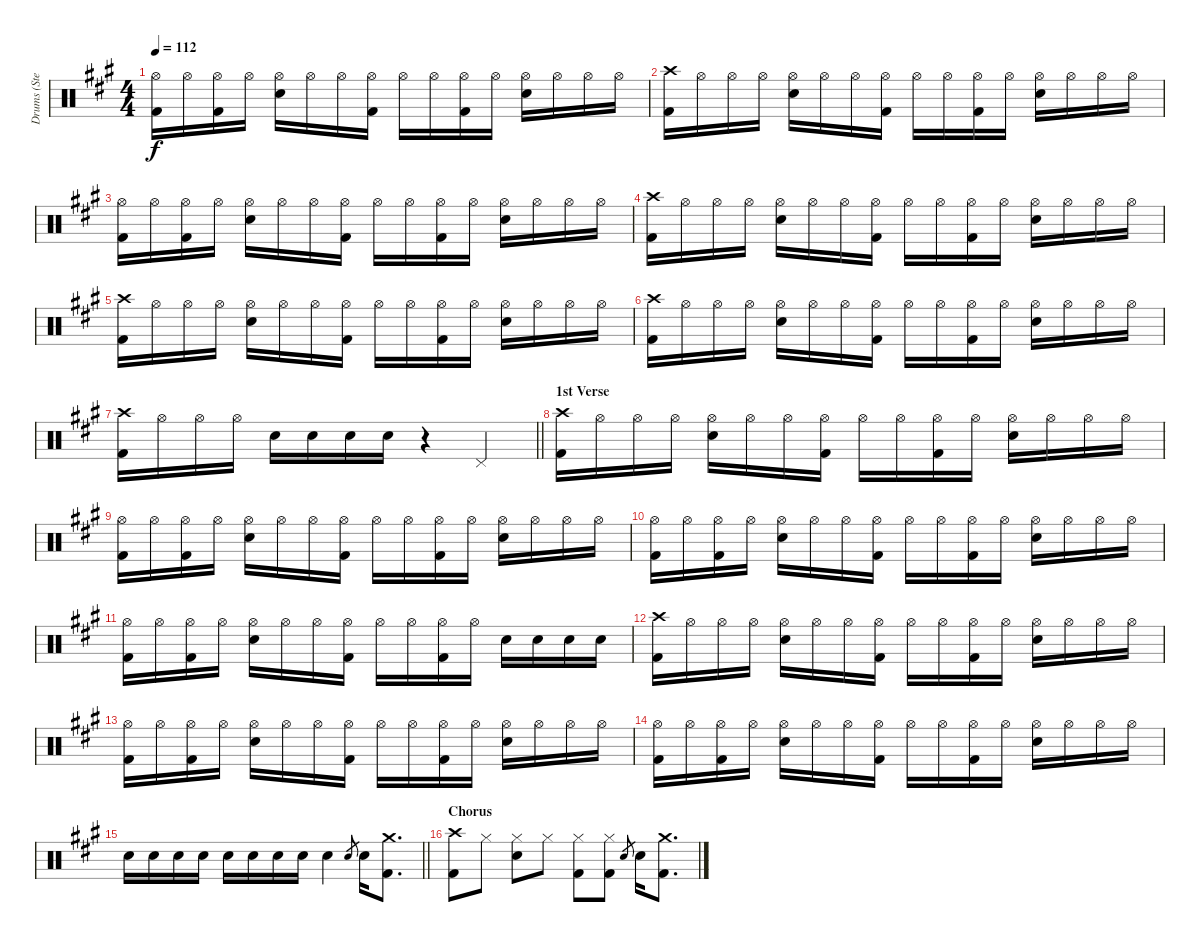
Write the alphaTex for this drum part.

\track ("Drums (Steven)" "Drums (Ste") {instrument percussion}
\staff {score}
\articulation defaults
\ts (4 4)
\tempo 112
\clef neutral
\ks f#minor
("Hi-Hat (open)" "Kick (hit) 2").16{dy f} "Hi-Hat (open)".16 ("Hi-Hat (open)" "Kick (hit) 2").16 "Hi-Hat (open)".16 ("Hi-Hat (open)" "Snare (hit) 2").16 "Hi-Hat (open)".16 "Hi-Hat (open)".16 ("Hi-Hat (open)" "Kick (hit) 2").16 "Hi-Hat (open)".16 "Hi-Hat (open)".16 ("Hi-Hat (open)" "Kick (hit) 2").16 "Hi-Hat (open)".16 ("Hi-Hat (open)" "Snare (hit) 2").16 "Hi-Hat (open)".16 "Hi-Hat (open)".16 "Hi-Hat (open)".16 |
("Crash high (hit)" "Kick (hit) 2").16 "Hi-Hat (open)".16 "Hi-Hat (open)".16 "Hi-Hat (open)".16 ("Hi-Hat (open)" "Snare (hit) 2").16 "Hi-Hat (open)".16 "Hi-Hat (open)".16 ("Hi-Hat (open)" "Kick (hit) 2").16 "Hi-Hat (open)".16 "Hi-Hat (open)".16 ("Hi-Hat (open)" "Kick (hit) 2").16 "Hi-Hat (open)".16 ("Hi-Hat (open)" "Snare (hit) 2").16 "Hi-Hat (open)".16 "Hi-Hat (open)".16 "Hi-Hat (open)".16 |
("Hi-Hat (open)" "Kick (hit) 2").16 "Hi-Hat (open)".16 ("Hi-Hat (open)" "Kick (hit) 2").16 "Hi-Hat (open)".16 ("Hi-Hat (open)" "Snare (hit) 2").16 "Hi-Hat (open)".16 "Hi-Hat (open)".16 ("Hi-Hat (open)" "Kick (hit) 2").16 "Hi-Hat (open)".16 "Hi-Hat (open)".16 ("Hi-Hat (open)" "Kick (hit) 2").16 "Hi-Hat (open)".16 ("Hi-Hat (open)" "Snare (hit) 2").16 "Hi-Hat (open)".16 "Hi-Hat (open)".16 "Hi-Hat (open)".16 |
("Crash high (hit)" "Kick (hit) 2").16 "Hi-Hat (open)".16 "Hi-Hat (open)".16 "Hi-Hat (open)".16 ("Hi-Hat (open)" "Snare (hit) 2").16 "Hi-Hat (open)".16 "Hi-Hat (open)".16 ("Hi-Hat (open)" "Kick (hit) 2").16 "Hi-Hat (open)".16 "Hi-Hat (open)".16 ("Hi-Hat (open)" "Kick (hit) 2").16 "Hi-Hat (open)".16 ("Hi-Hat (open)" "Snare (hit) 2").16 "Hi-Hat (open)".16 "Hi-Hat (open)".16 "Hi-Hat (open)".16 |
("Crash high (hit)" "Kick (hit) 2").16 "Hi-Hat (open)".16 "Hi-Hat (open)".16 "Hi-Hat (open)".16 ("Hi-Hat (open)" "Snare (hit) 2").16 "Hi-Hat (open)".16 "Hi-Hat (open)".16 ("Hi-Hat (open)" "Kick (hit) 2").16 "Hi-Hat (open)".16 "Hi-Hat (open)".16 ("Hi-Hat (open)" "Kick (hit) 2").16 "Hi-Hat (open)".16 ("Hi-Hat (open)" "Snare (hit) 2").16 "Hi-Hat (open)".16 "Hi-Hat (open)".16 "Hi-Hat (open)".16 |
("Crash high (hit)" "Kick (hit) 2").16 "Hi-Hat (open)".16 "Hi-Hat (open)".16 "Hi-Hat (open)".16 ("Hi-Hat (open)" "Snare (hit) 2").16 "Hi-Hat (open)".16 "Hi-Hat (open)".16 ("Hi-Hat (open)" "Kick (hit) 2").16 "Hi-Hat (open)".16 "Hi-Hat (open)".16 ("Hi-Hat (open)" "Kick (hit) 2").16 "Hi-Hat (open)".16 ("Hi-Hat (open)" "Snare (hit) 2").16 "Hi-Hat (open)".16 "Hi-Hat (open)".16 "Hi-Hat (open)".16 |
\barLineRight lightlight
("Crash high (hit)" "Kick (hit) 2").16 "Hi-Hat (open)".16 "Hi-Hat (open)".16 "Hi-Hat (open)".16 "Snare (hit) 2".16 "Snare (hit) 2".16 "Snare (hit) 2".16 "Snare (hit) 2".16 r.4 "Pedal Hi-Hat (hit)".4 |
\section ("" "1st Verse")
("Crash high (hit)" "Kick (hit) 2").16 "Hi-Hat (open)".16 "Hi-Hat (open)".16 "Hi-Hat (open)".16 ("Hi-Hat (open)" "Snare (hit) 2").16 "Hi-Hat (open)".16 "Hi-Hat (open)".16 ("Hi-Hat (open)" "Kick (hit) 2").16 "Hi-Hat (open)".16 "Hi-Hat (open)".16 ("Hi-Hat (open)" "Kick (hit) 2").16 "Hi-Hat (open)".16 ("Hi-Hat (open)" "Snare (hit) 2").16 "Hi-Hat (open)".16 "Hi-Hat (open)".16 "Hi-Hat (open)".16 |
("Hi-Hat (open)" "Kick (hit) 2").16 "Hi-Hat (open)".16 ("Hi-Hat (open)" "Kick (hit) 2").16 "Hi-Hat (open)".16 ("Hi-Hat (open)" "Snare (hit) 2").16 "Hi-Hat (open)".16 "Hi-Hat (open)".16 ("Hi-Hat (open)" "Kick (hit) 2").16 "Hi-Hat (open)".16 "Hi-Hat (open)".16 ("Hi-Hat (open)" "Kick (hit) 2").16 "Hi-Hat (open)".16 ("Hi-Hat (open)" "Snare (hit) 2").16 "Hi-Hat (open)".16 "Hi-Hat (open)".16 "Hi-Hat (open)".16 |
("Hi-Hat (open)" "Kick (hit) 2").16 "Hi-Hat (open)".16 ("Hi-Hat (open)" "Kick (hit) 2").16 "Hi-Hat (open)".16 ("Hi-Hat (open)" "Snare (hit) 2").16 "Hi-Hat (open)".16 "Hi-Hat (open)".16 ("Hi-Hat (open)" "Kick (hit) 2").16 "Hi-Hat (open)".16 "Hi-Hat (open)".16 ("Hi-Hat (open)" "Kick (hit) 2").16 "Hi-Hat (open)".16 ("Hi-Hat (open)" "Snare (hit) 2").16 "Hi-Hat (open)".16 "Hi-Hat (open)".16 "Hi-Hat (open)".16 |
("Hi-Hat (open)" "Kick (hit) 2").16 "Hi-Hat (open)".16 ("Hi-Hat (open)" "Kick (hit) 2").16 "Hi-Hat (open)".16 ("Hi-Hat (open)" "Snare (hit) 2").16 "Hi-Hat (open)".16 "Hi-Hat (open)".16 ("Hi-Hat (open)" "Kick (hit) 2").16 "Hi-Hat (open)".16 "Hi-Hat (open)".16 ("Hi-Hat (open)" "Kick (hit) 2").16 "Hi-Hat (open)".16 "Snare (hit) 2".16 "Snare (hit) 2".16 "Snare (hit) 2".16 "Snare (hit) 2".16 |
("Crash high (hit)" "Kick (hit) 2").16 "Hi-Hat (open)".16 "Hi-Hat (open)".16 "Hi-Hat (open)".16 ("Hi-Hat (open)" "Snare (hit) 2").16 "Hi-Hat (open)".16 "Hi-Hat (open)".16 ("Hi-Hat (open)" "Kick (hit) 2").16 "Hi-Hat (open)".16 "Hi-Hat (open)".16 ("Hi-Hat (open)" "Kick (hit) 2").16 "Hi-Hat (open)".16 ("Hi-Hat (open)" "Snare (hit) 2").16 "Hi-Hat (open)".16 "Hi-Hat (open)".16 "Hi-Hat (open)".16 |
("Hi-Hat (open)" "Kick (hit) 2").16 "Hi-Hat (open)".16 ("Hi-Hat (open)" "Kick (hit) 2").16 "Hi-Hat (open)".16 ("Hi-Hat (open)" "Snare (hit) 2").16 "Hi-Hat (open)".16 "Hi-Hat (open)".16 ("Hi-Hat (open)" "Kick (hit) 2").16 "Hi-Hat (open)".16 "Hi-Hat (open)".16 ("Hi-Hat (open)" "Kick (hit) 2").16 "Hi-Hat (open)".16 ("Hi-Hat (open)" "Snare (hit) 2").16 "Hi-Hat (open)".16 "Hi-Hat (open)".16 "Hi-Hat (open)".16 |
("Hi-Hat (open)" "Kick (hit) 2").16 "Hi-Hat (open)".16 ("Hi-Hat (open)" "Kick (hit) 2").16 "Hi-Hat (open)".16 ("Hi-Hat (open)" "Snare (hit) 2").16 "Hi-Hat (open)".16 "Hi-Hat (open)".16 ("Hi-Hat (open)" "Kick (hit) 2").16 "Hi-Hat (open)".16 "Hi-Hat (open)".16 ("Hi-Hat (open)" "Kick (hit) 2").16 "Hi-Hat (open)".16 ("Hi-Hat (open)" "Snare (hit) 2").16 "Hi-Hat (open)".16 "Hi-Hat (open)".16 "Hi-Hat (open)".16 |
\barLineRight lightlight "Snare (hit) 2".16 "Snare (hit) 2".16 "Snare (hit) 2".16 "Snare (hit) 2".16 "Snare (hit) 2".16 "Snare (hit) 2".16 "Snare (hit) 2".16 "Snare (hit) 2".16 "Snare (hit) 2".4 "Snare (hit) 2".8{gr} "Snare (hit) 2".16
("Crash medium (hit)" "Kick (hit) 2").8{d} |
\section ("" "Chorus")
("Crash high (hit)" "Kick (hit) 2").8 "Hi-Hat (closed)".8 ("Hi-Hat (closed)" "Snare (hit) 2").8 "Hi-Hat (closed)".8 ("Hi-Hat (closed)" "Kick (hit) 2").8 ("Hi-Hat (closed)" "Kick (hit) 2").8 "Snare (hit) 2".8{gr} "Snare (hit) 2".16 ("Crash medium (hit)" "Kick (hit) 2").8{d}
